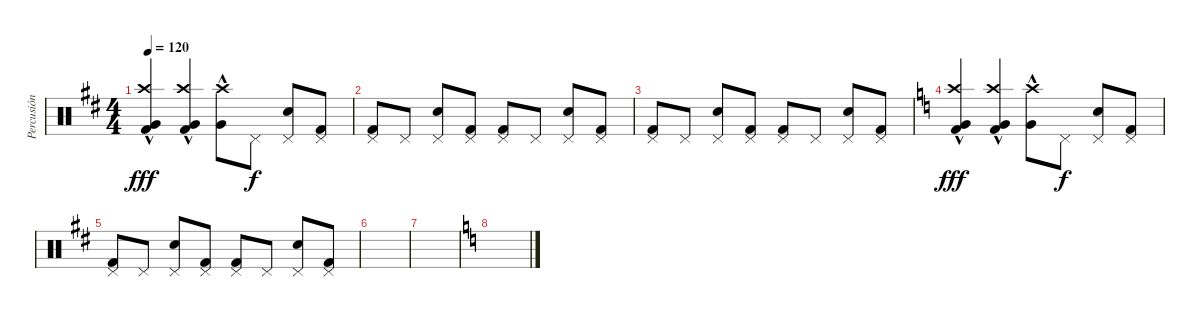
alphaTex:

\track ("Percusión" "Percusión") {instrument percussion}
\staff {score}
\articulation defaults
\ts (4 4)
\tempo 120
\clef neutral
\ks d
("Very Low Tom (hit)" "Crash high (hit)"{hac} "Kick (hit) 2").4{dy fff volume 7} ("Very Low Tom (hit)" "Crash high (hit)"{hac} "Kick (hit) 2").4{volume 6} ("Very Low Tom (hit)" "Crash high (hit)"{hac}).8{volume 6} "Pedal Hi-Hat (hit)".8{dy f volume 6} ("Pedal Hi-Hat (hit)" "Electric Snare (hit)").8{volume 5} ("Pedal Hi-Hat (hit)" "Kick (hit) 2").8{volume 5} |
("Pedal Hi-Hat (hit)" "Kick (hit) 2").8{volume 5} "Pedal Hi-Hat (hit)".8{volume 4} ("Pedal Hi-Hat (hit)" "Electric Snare (hit)").8{volume 4} ("Pedal Hi-Hat (hit)" "Kick (hit) 2").8{volume 4} ("Pedal Hi-Hat (hit)" "Kick (hit) 2").8{volume 4} "Pedal Hi-Hat (hit)".8{volume 3} ("Pedal Hi-Hat (hit)" "Electric Snare (hit)").8{volume 3} ("Pedal Hi-Hat (hit)" "Kick (hit) 2").8{volume 3} |
("Pedal Hi-Hat (hit)" "Kick (hit) 2").8{volume 3} "Pedal Hi-Hat (hit)".8{volume 2} ("Pedal Hi-Hat (hit)" "Electric Snare (hit)").8{volume 2} ("Pedal Hi-Hat (hit)" "Kick (hit) 2").8{volume 2} ("Pedal Hi-Hat (hit)" "Kick (hit) 2").8{volume 1} "Pedal Hi-Hat (hit)".8{volume 1} ("Pedal Hi-Hat (hit)" "Electric Snare (hit)").8{volume 1} ("Pedal Hi-Hat (hit)" "Kick (hit) 2").8{volume 1} |
\ks c
("Very Low Tom (hit)" "Crash high (hit)"{hac} "Kick (hit) 2").4{dy fff volume 1} ("Very Low Tom (hit)" "Crash high (hit)"{hac} "Kick (hit) 2").4{volume 1} ("Very Low Tom (hit)" "Crash high (hit)"{hac}).8{volume 1} "Pedal Hi-Hat (hit)".8{dy f volume 1} ("Pedal Hi-Hat (hit)" "Electric Snare (hit)").8{volume 1} ("Pedal Hi-Hat (hit)" "Kick (hit) 2").8{volume 0} |
\ks d
("Pedal Hi-Hat (hit)" "Kick (hit) 2").8{volume 0} "Pedal Hi-Hat (hit)".8 ("Pedal Hi-Hat (hit)" "Electric Snare (hit)").8 ("Pedal Hi-Hat (hit)" "Kick (hit) 2").8 ("Pedal Hi-Hat (hit)" "Kick (hit) 2").8 "Pedal Hi-Hat (hit)".8 ("Pedal Hi-Hat (hit)" "Electric Snare (hit)").8 ("Pedal Hi-Hat (hit)" "Kick (hit) 2").8 |
|
|
\ks c
